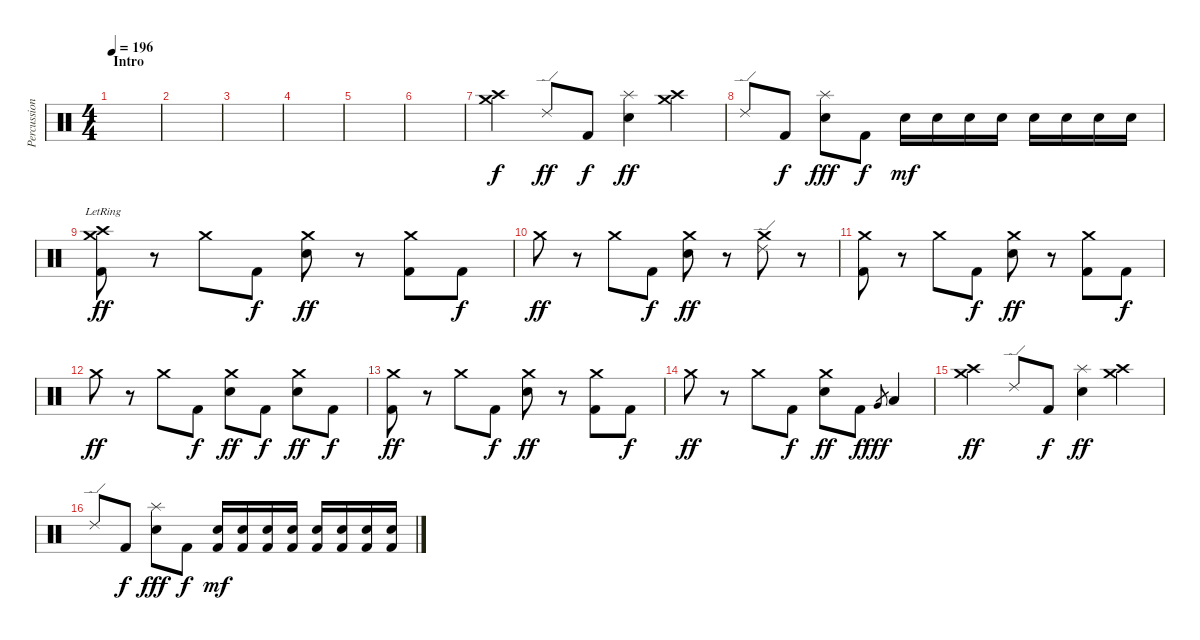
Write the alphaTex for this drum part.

\track ("Percussions" "Percussion") {instrument percussion}
\staff {score}
\articulation defaults
\ts (4 4)
\section ("" "Intro")
\tempo 196
\clef neutral
\ks c
|
|
|
|
|
|
("Crash medium (hit)" "Crash high (hit)").4 "Ride (edge) 2".8{dy ff} "Kick (hit) 2".8{dy f} ("Splash (hit)" "Electric Snare (hit)").4{dy ff} ("Crash medium (hit)" "Crash high (hit)").4 |
"Ride (edge) 2".8 "Kick (hit) 2".8{dy f} ("Splash (hit)" "Electric Snare (hit)").8{dy fff} "Kick (hit) 2".8{dy f} "Electric Snare (hit)".16{dy mf} "Electric Snare (hit)".16 "Electric Snare (hit)".16 "Electric Snare (hit)".16 "Electric Snare (hit)".16 "Electric Snare (hit)".16 "Electric Snare (hit)".16 "Electric Snare (hit)".16 |
("Crash high (hit)"{lr} "Crash medium (hit)" "Kick (hit) 2").8{dy ff} r.8 "Crash medium (hit)".8 "Kick (hit) 2".8{dy f} ("Crash medium (hit)" "Electric Snare (hit)").8{dy ff} r.8 ("Crash medium (hit)" "Kick (hit) 2").8 "Kick (hit) 2".8{dy f} |
"Crash medium (hit)".8{dy ff} r.8 "Crash medium (hit)".8 "Kick (hit) 2".8{dy f} ("Crash medium (hit)" "Electric Snare (hit)").8{dy ff} r.8 ("Ride (edge) 2" "Crash medium (hit)").8 r.8 |
("Crash medium (hit)" "Kick (hit) 2").8 r.8 "Crash medium (hit)".8 "Kick (hit) 2".8{dy f} ("Crash medium (hit)" "Electric Snare (hit)").8{dy ff} r.8 ("Crash medium (hit)" "Kick (hit) 2").8 "Kick (hit) 2".8{dy f} |
"Crash medium (hit)".8{dy ff} r.8 "Crash medium (hit)".8 "Kick (hit) 2".8{dy f} ("Crash medium (hit)" "Electric Snare (hit)").8{dy ff} "Kick (hit) 2".8{dy f} ("Crash medium (hit)" "Electric Snare (hit)").8{dy ff} "Kick (hit) 2".8{dy f} |
("Crash medium (hit)" "Kick (hit) 2").8{dy ff} r.8 "Crash medium (hit)".8 "Kick (hit) 2".8{dy f} ("Crash medium (hit)" "Electric Snare (hit)").8{dy ff} r.8 ("Crash medium (hit)" "Kick (hit) 2").8 "Kick (hit) 2".8{dy f} |
"Crash medium (hit)".8{dy ff} r.8 "Crash medium (hit)".8 "Kick (hit) 2".8{dy f} ("Crash medium (hit)" "Electric Snare (hit)").8{dy ff} "Kick (hit) 2".8{dy f} "Very Low Tom (hit)".8{gr dy fff} "Low Tom (hit)".4 |
("Crash medium (hit)" "Crash high (hit)").4{dy ff} "Ride (edge) 2".8 "Kick (hit) 2".8{dy f} ("Splash (hit)" "Electric Snare (hit)").4{dy ff} ("Crash medium (hit)" "Crash high (hit)").4 |
"Ride (edge) 2".8 "Kick (hit) 2".8{dy f} ("Splash (hit)" "Electric Snare (hit)").8{dy fff} "Kick (hit) 2".8{dy f} ("Electric Snare (hit)" "Kick (hit) 2").16{dy mf} ("Electric Snare (hit)" "Kick (hit) 2").16 ("Electric Snare (hit)" "Kick (hit) 2").16 ("Electric Snare (hit)" "Kick (hit) 2").16 ("Electric Snare (hit)" "Kick (hit) 2").16 ("Electric Snare (hit)" "Kick (hit) 2").16 ("Electric Snare (hit)" "Kick (hit) 2").16 ("Electric Snare (hit)" "Kick (hit) 2").16
